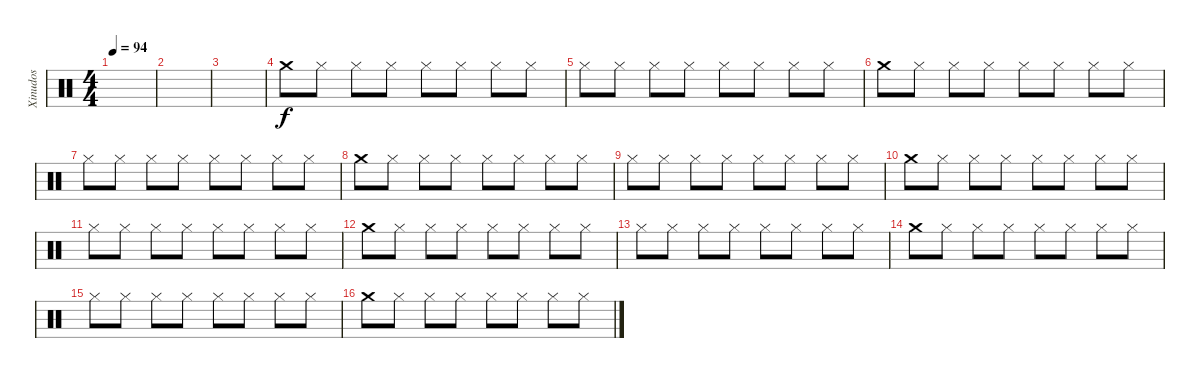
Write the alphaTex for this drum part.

\track ("Xinudos" "Xinudos") {instrument percussion}
\staff {score}
\articulation defaults
\ts (4 4)
\tempo 94
\clef neutral
\ks c
|
|
|
"Crash medium (hit)".8 "Hi-Hat (closed)".8 "Hi-Hat (closed)".8 "Hi-Hat (closed)".8 "Hi-Hat (closed)".8 "Hi-Hat (closed)".8 "Hi-Hat (closed)".8 "Hi-Hat (closed)".8 |
"Hi-Hat (closed)".8 "Hi-Hat (closed)".8 "Hi-Hat (closed)".8 "Hi-Hat (closed)".8 "Hi-Hat (closed)".8 "Hi-Hat (closed)".8 "Hi-Hat (closed)".8 "Hi-Hat (closed)".8 |
"Crash medium (hit)".8 "Hi-Hat (closed)".8 "Hi-Hat (closed)".8 "Hi-Hat (closed)".8 "Hi-Hat (closed)".8 "Hi-Hat (closed)".8 "Hi-Hat (closed)".8 "Hi-Hat (closed)".8 |
"Hi-Hat (closed)".8 "Hi-Hat (closed)".8 "Hi-Hat (closed)".8 "Hi-Hat (closed)".8 "Hi-Hat (closed)".8 "Hi-Hat (closed)".8 "Hi-Hat (closed)".8 "Hi-Hat (closed)".8 |
"Crash medium (hit)".8 "Hi-Hat (closed)".8 "Hi-Hat (closed)".8 "Hi-Hat (closed)".8 "Hi-Hat (closed)".8 "Hi-Hat (closed)".8 "Hi-Hat (closed)".8 "Hi-Hat (closed)".8 |
"Hi-Hat (closed)".8 "Hi-Hat (closed)".8 "Hi-Hat (closed)".8 "Hi-Hat (closed)".8 "Hi-Hat (closed)".8 "Hi-Hat (closed)".8 "Hi-Hat (closed)".8 "Hi-Hat (closed)".8 |
"Crash medium (hit)".8 "Hi-Hat (closed)".8 "Hi-Hat (closed)".8 "Hi-Hat (closed)".8 "Hi-Hat (closed)".8 "Hi-Hat (closed)".8 "Hi-Hat (closed)".8 "Hi-Hat (closed)".8 |
"Hi-Hat (closed)".8 "Hi-Hat (closed)".8 "Hi-Hat (closed)".8 "Hi-Hat (closed)".8 "Hi-Hat (closed)".8 "Hi-Hat (closed)".8 "Hi-Hat (closed)".8 "Hi-Hat (closed)".8 |
"Crash medium (hit)".8 "Hi-Hat (closed)".8 "Hi-Hat (closed)".8 "Hi-Hat (closed)".8 "Hi-Hat (closed)".8 "Hi-Hat (closed)".8 "Hi-Hat (closed)".8 "Hi-Hat (closed)".8 |
"Hi-Hat (closed)".8 "Hi-Hat (closed)".8 "Hi-Hat (closed)".8 "Hi-Hat (closed)".8 "Hi-Hat (closed)".8 "Hi-Hat (closed)".8 "Hi-Hat (closed)".8 "Hi-Hat (closed)".8 |
"Crash medium (hit)".8 "Hi-Hat (closed)".8 "Hi-Hat (closed)".8 "Hi-Hat (closed)".8 "Hi-Hat (closed)".8 "Hi-Hat (closed)".8 "Hi-Hat (closed)".8 "Hi-Hat (closed)".8 |
"Hi-Hat (closed)".8 "Hi-Hat (closed)".8 "Hi-Hat (closed)".8 "Hi-Hat (closed)".8 "Hi-Hat (closed)".8 "Hi-Hat (closed)".8 "Hi-Hat (closed)".8 "Hi-Hat (closed)".8 |
"Crash medium (hit)".8 "Hi-Hat (closed)".8 "Hi-Hat (closed)".8 "Hi-Hat (closed)".8 "Hi-Hat (closed)".8 "Hi-Hat (closed)".8 "Hi-Hat (closed)".8 "Hi-Hat (closed)".8
